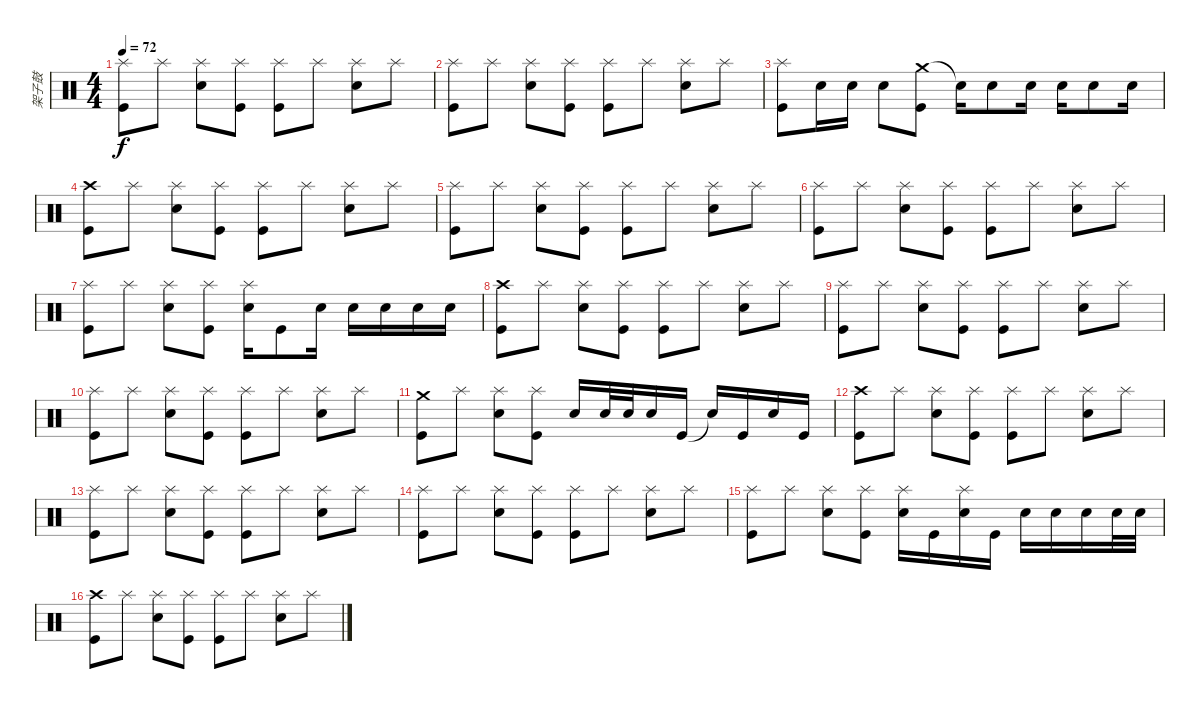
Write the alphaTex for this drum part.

\track ("架子鼓" "架子鼓") {instrument percussion}
\staff {score}
\articulation defaults
\ts (4 4)
\tempo 72
\clef neutral
\ks c
("Splash (hit)" "Kick (hit)").8{dy f} "Splash (hit)".8 ("Splash (hit)" "Electric Snare (hit)").8 ("Splash (hit)" "Kick (hit)").8 ("Splash (hit)" "Kick (hit)").8 "Splash (hit)".8 ("Splash (hit)" "Electric Snare (hit)").8 "Splash (hit)".8 |
("Splash (hit)" "Kick (hit)").8 "Splash (hit)".8 ("Splash (hit)" "Electric Snare (hit)").8 ("Splash (hit)" "Kick (hit)").8 ("Splash (hit)" "Kick (hit)").8 "Splash (hit)".8 ("Splash (hit)" "Electric Snare (hit)").8 "Splash (hit)".8 |
("Splash (hit)" "Kick (hit)").8 "Electric Snare (hit)".16 "Electric Snare (hit)".16 "Electric Snare (hit)".8 ("Crash medium (hit)" "Kick (hit)").8 "Snare (hit)"{t}.16 "Electric Snare (hit)".8 "Electric Snare (hit)".16 "Electric Snare (hit)".16 "Electric Snare (hit)".8 "Electric Snare (hit)".16 |
("Crash high (hit)" "Kick (hit)").8 "Splash (hit)".8 ("Splash (hit)" "Electric Snare (hit)").8 ("Splash (hit)" "Kick (hit)").8 ("Splash (hit)" "Kick (hit)").8 "Splash (hit)".8 ("Splash (hit)" "Electric Snare (hit)").8 "Splash (hit)".8 |
("Splash (hit)" "Kick (hit)").8 "Splash (hit)".8 ("Splash (hit)" "Electric Snare (hit)").8 ("Splash (hit)" "Kick (hit)").8 ("Splash (hit)" "Kick (hit)").8 "Splash (hit)".8 ("Splash (hit)" "Electric Snare (hit)").8 "Splash (hit)".8 |
("Splash (hit)" "Kick (hit)").8 "Splash (hit)".8 ("Splash (hit)" "Electric Snare (hit)").8 ("Splash (hit)" "Kick (hit)").8 ("Splash (hit)" "Kick (hit)").8 "Splash (hit)".8 ("Splash (hit)" "Electric Snare (hit)").8 "Splash (hit)".8 |
("Splash (hit)" "Kick (hit)").8 "Splash (hit)".8 ("Splash (hit)" "Electric Snare (hit)").8 ("Splash (hit)" "Kick (hit)").8 ("Splash (hit)" "Electric Snare (hit)").16 "Kick (hit)".8 "Electric Snare (hit)".16 "Electric Snare (hit)".16 "Electric Snare (hit)".16 "Electric Snare (hit)".16 "Electric Snare (hit)".16 |
("Crash high (hit)" "Kick (hit)").8 "Splash (hit)".8 ("Splash (hit)" "Electric Snare (hit)").8 ("Splash (hit)" "Kick (hit)").8 ("Splash (hit)" "Kick (hit)").8 "Splash (hit)".8 ("Splash (hit)" "Electric Snare (hit)").8 "Splash (hit)".8 |
("Splash (hit)" "Kick (hit)").8 "Splash (hit)".8 ("Splash (hit)" "Electric Snare (hit)").8 ("Splash (hit)" "Kick (hit)").8 ("Splash (hit)" "Kick (hit)").8 "Splash (hit)".8 ("Splash (hit)" "Electric Snare (hit)").8 "Splash (hit)".8 |
("Splash (hit)" "Kick (hit)").8 "Splash (hit)".8 ("Splash (hit)" "Electric Snare (hit)").8 ("Splash (hit)" "Kick (hit)").8 ("Splash (hit)" "Kick (hit)").8 "Splash (hit)".8 ("Splash (hit)" "Electric Snare (hit)").8 "Splash (hit)".8 |
("Crash medium (hit)" "Kick (hit)").8 "Splash (hit)".8 ("Splash (hit)" "Electric Snare (hit)").8 ("Splash (hit)" "Kick (hit)").8 "Electric Snare (hit)".16 "Electric Snare (hit)".32 "Electric Snare (hit)".32 "Electric Snare (hit)".16 "Kick (hit)".16 "Snare (hit)"{t}.16 "Kick (hit)".16 "Electric Snare (hit)".16 "Kick (hit)".16 |
("Crash high (hit)" "Kick (hit)").8 "Splash (hit)".8 ("Splash (hit)" "Electric Snare (hit)").8 ("Splash (hit)" "Kick (hit)").8 ("Splash (hit)" "Kick (hit)").8 "Splash (hit)".8 ("Splash (hit)" "Electric Snare (hit)").8 "Splash (hit)".8 |
("Splash (hit)" "Kick (hit)").8 "Splash (hit)".8 ("Splash (hit)" "Electric Snare (hit)").8 ("Splash (hit)" "Kick (hit)").8 ("Splash (hit)" "Kick (hit)").8 "Splash (hit)".8 ("Splash (hit)" "Electric Snare (hit)").8 "Splash (hit)".8 |
("Splash (hit)" "Kick (hit)").8 "Splash (hit)".8 ("Splash (hit)" "Electric Snare (hit)").8 ("Splash (hit)" "Kick (hit)").8 ("Splash (hit)" "Kick (hit)").8 "Splash (hit)".8 ("Splash (hit)" "Electric Snare (hit)").8 "Splash (hit)".8 |
("Splash (hit)" "Kick (hit)").8 "Splash (hit)".8 ("Splash (hit)" "Electric Snare (hit)").8 ("Splash (hit)" "Kick (hit)").8 ("Splash (hit)" "Electric Snare (hit)").16 "Kick (hit)".16 ("Splash (hit)" "Electric Snare (hit)").16 "Kick (hit)".16 "Electric Snare (hit)".16 "Electric Snare (hit)".16 "Electric Snare (hit)".16 "Electric Snare (hit)".32 "Electric Snare (hit)".32 |
("Crash high (hit)" "Kick (hit)").8 "Splash (hit)".8 ("Splash (hit)" "Electric Snare (hit)").8 ("Splash (hit)" "Kick (hit)").8 ("Splash (hit)" "Kick (hit)").8 "Splash (hit)".8 ("Splash (hit)" "Electric Snare (hit)").8 "Splash (hit)".8
